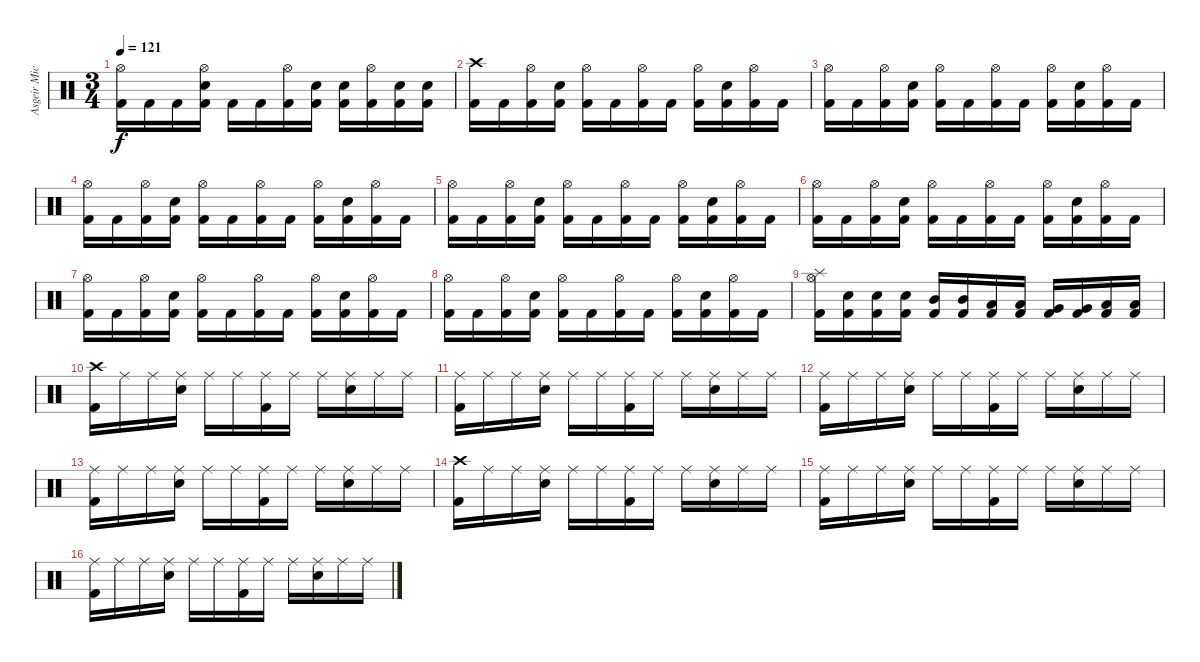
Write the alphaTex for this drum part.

\track ("Asgeir Mickelson" "Asgeir Mic") {instrument percussion}
\staff {score}
\articulation defaults
\ts (3 4)
\tempo 121
\clef neutral
\ks c
("Hi-Hat (open)" "Kick (hit) 2").16{dy f} "Kick (hit) 2".16 "Kick (hit) 2".16 ("Hi-Hat (open)" "Electric Snare (hit)" "Kick (hit) 2").16 "Kick (hit) 2".16 "Kick (hit) 2".16 ("Hi-Hat (open)" "Kick (hit) 2").16 ("Electric Snare (hit)" "Kick (hit) 2").16 ("Electric Snare (hit)" "Kick (hit) 2").16 ("Hi-Hat (open)" "Kick (hit) 2").16 ("Electric Snare (hit)" "Kick (hit) 2").16 ("Electric Snare (hit)" "Kick (hit) 2").16 |
("Crash high (hit)" "Kick (hit) 2").16 "Kick (hit) 2".16 ("Hi-Hat (open)" "Kick (hit) 2").16 ("Electric Snare (hit)" "Kick (hit) 2").16 ("Hi-Hat (open)" "Kick (hit) 2").16 "Kick (hit) 2".16 ("Hi-Hat (open)" "Kick (hit) 2").16 "Kick (hit) 2".16 ("Hi-Hat (open)" "Kick (hit) 2").16 ("Electric Snare (hit)" "Kick (hit) 2").16 ("Hi-Hat (open)" "Kick (hit) 2").16 "Kick (hit) 2".16 |
("Hi-Hat (open)" "Kick (hit) 2").16 "Kick (hit) 2".16 ("Hi-Hat (open)" "Kick (hit) 2").16 ("Electric Snare (hit)" "Kick (hit) 2").16 ("Hi-Hat (open)" "Kick (hit) 2").16 "Kick (hit) 2".16 ("Hi-Hat (open)" "Kick (hit) 2").16 "Kick (hit) 2".16 ("Hi-Hat (open)" "Kick (hit) 2").16 ("Electric Snare (hit)" "Kick (hit) 2").16 ("Hi-Hat (open)" "Kick (hit) 2").16 "Kick (hit) 2".16 |
("Hi-Hat (open)" "Kick (hit) 2").16 "Kick (hit) 2".16 ("Hi-Hat (open)" "Kick (hit) 2").16 ("Electric Snare (hit)" "Kick (hit) 2").16 ("Hi-Hat (open)" "Kick (hit) 2").16 "Kick (hit) 2".16 ("Hi-Hat (open)" "Kick (hit) 2").16 "Kick (hit) 2".16 ("Hi-Hat (open)" "Kick (hit) 2").16 ("Electric Snare (hit)" "Kick (hit) 2").16 ("Hi-Hat (open)" "Kick (hit) 2").16 "Kick (hit) 2".16 |
("Hi-Hat (open)" "Kick (hit) 2").16 "Kick (hit) 2".16 ("Hi-Hat (open)" "Kick (hit) 2").16 ("Electric Snare (hit)" "Kick (hit) 2").16 ("Hi-Hat (open)" "Kick (hit) 2").16 "Kick (hit) 2".16 ("Hi-Hat (open)" "Kick (hit) 2").16 "Kick (hit) 2".16 ("Hi-Hat (open)" "Kick (hit) 2").16 ("Electric Snare (hit)" "Kick (hit) 2").16 ("Hi-Hat (open)" "Kick (hit) 2").16 "Kick (hit) 2".16 |
("Hi-Hat (open)" "Kick (hit) 2").16 "Kick (hit) 2".16 ("Hi-Hat (open)" "Kick (hit) 2").16 ("Electric Snare (hit)" "Kick (hit) 2").16 ("Hi-Hat (open)" "Kick (hit) 2").16 "Kick (hit) 2".16 ("Hi-Hat (open)" "Kick (hit) 2").16 "Kick (hit) 2".16 ("Hi-Hat (open)" "Kick (hit) 2").16 ("Electric Snare (hit)" "Kick (hit) 2").16 ("Hi-Hat (open)" "Kick (hit) 2").16 "Kick (hit) 2".16 |
("Hi-Hat (open)" "Kick (hit) 2").16 "Kick (hit) 2".16 ("Hi-Hat (open)" "Kick (hit) 2").16 ("Electric Snare (hit)" "Kick (hit) 2").16 ("Hi-Hat (open)" "Kick (hit) 2").16 "Kick (hit) 2".16 ("Hi-Hat (open)" "Kick (hit) 2").16 "Kick (hit) 2".16 ("Hi-Hat (open)" "Kick (hit) 2").16 ("Electric Snare (hit)" "Kick (hit) 2").16 ("Hi-Hat (open)" "Kick (hit) 2").16 "Kick (hit) 2".16 |
("Hi-Hat (open)" "Kick (hit) 2").16 "Kick (hit) 2".16 ("Hi-Hat (open)" "Kick (hit) 2").16 ("Electric Snare (hit)" "Kick (hit) 2").16 ("Hi-Hat (open)" "Kick (hit) 2").16 "Kick (hit) 2".16 ("Hi-Hat (open)" "Kick (hit) 2").16 "Kick (hit) 2".16 ("Hi-Hat (open)" "Kick (hit) 2").16 ("Electric Snare (hit)" "Kick (hit) 2").16 ("Hi-Hat (open)" "Kick (hit) 2").16 "Kick (hit) 2".16 |
("Splash (hit)" "Hi-Hat (open)" "Kick (hit) 2").16 ("Electric Snare (hit)" "Kick (hit) 2").16 ("Electric Snare (hit)" "Kick (hit) 2").16 ("Electric Snare (hit)" "Kick (hit) 2").16 ("Mid Tom (hit)" "Kick (hit) 2").16 ("Mid Tom (hit)" "Kick (hit) 2").16 ("Low Tom (hit)" "Kick (hit) 2").16 ("Low Tom (hit)" "Kick (hit) 2").16 ("Very Low Tom (hit)" "Kick (hit) 2").16 ("Very Low Tom (hit)" "Kick (hit) 2").16 ("Low Floor Tom (hit)" "Kick (hit) 2").16 ("Low Floor Tom (hit)" "Kick (hit) 2").16 |
("Crash high (hit)" "Kick (hit) 2").16 "Ride (middle)".16 "Ride (middle)".16 ("Ride (middle)" "Electric Snare (hit)").16 "Ride (middle)".16 "Ride (middle)".16 ("Ride (middle)" "Kick (hit) 2").16 "Ride (middle)".16 "Ride (middle)".16 ("Ride (middle)" "Electric Snare (hit)").16 "Ride (middle)".16 "Ride (middle)".16 |
("Ride (middle)" "Kick (hit) 2").16 "Ride (middle)".16 "Ride (middle)".16 ("Ride (middle)" "Electric Snare (hit)").16 "Ride (middle)".16 "Ride (middle)".16 ("Ride (middle)" "Kick (hit) 2").16 "Ride (middle)".16 "Ride (middle)".16 ("Ride (middle)" "Electric Snare (hit)").16 "Ride (middle)".16 "Ride (middle)".16 |
("Ride (middle)" "Kick (hit) 2").16 "Ride (middle)".16 "Ride (middle)".16 ("Ride (middle)" "Electric Snare (hit)").16 "Ride (middle)".16 "Ride (middle)".16 ("Ride (middle)" "Kick (hit) 2").16 "Ride (middle)".16 "Ride (middle)".16 ("Ride (middle)" "Electric Snare (hit)").16 "Ride (middle)".16 "Ride (middle)".16 |
("Ride (middle)" "Kick (hit) 2").16 "Ride (middle)".16 "Ride (middle)".16 ("Ride (middle)" "Electric Snare (hit)").16 "Ride (middle)".16 "Ride (middle)".16 ("Ride (middle)" "Kick (hit) 2").16 "Ride (middle)".16 "Ride (middle)".16 ("Ride (middle)" "Electric Snare (hit)").16 "Ride (middle)".16 "Ride (middle)".16 |
("Crash high (hit)" "Kick (hit) 2").16 "Ride (middle)".16 "Ride (middle)".16 ("Ride (middle)" "Electric Snare (hit)").16 "Ride (middle)".16 "Ride (middle)".16 ("Ride (middle)" "Kick (hit) 2").16 "Ride (middle)".16 "Ride (middle)".16 ("Ride (middle)" "Electric Snare (hit)").16 "Ride (middle)".16 "Ride (middle)".16 |
("Ride (middle)" "Kick (hit) 2").16 "Ride (middle)".16 "Ride (middle)".16 ("Ride (middle)" "Electric Snare (hit)").16 "Ride (middle)".16 "Ride (middle)".16 ("Ride (middle)" "Kick (hit) 2").16 "Ride (middle)".16 "Ride (middle)".16 ("Ride (middle)" "Electric Snare (hit)").16 "Ride (middle)".16 "Ride (middle)".16 |
("Ride (middle)" "Kick (hit) 2").16 "Ride (middle)".16 "Ride (middle)".16 ("Ride (middle)" "Electric Snare (hit)").16 "Ride (middle)".16 "Ride (middle)".16 ("Ride (middle)" "Kick (hit) 2").16 "Ride (middle)".16 "Ride (middle)".16 ("Ride (middle)" "Electric Snare (hit)").16 "Ride (middle)".16 "Ride (middle)".16
